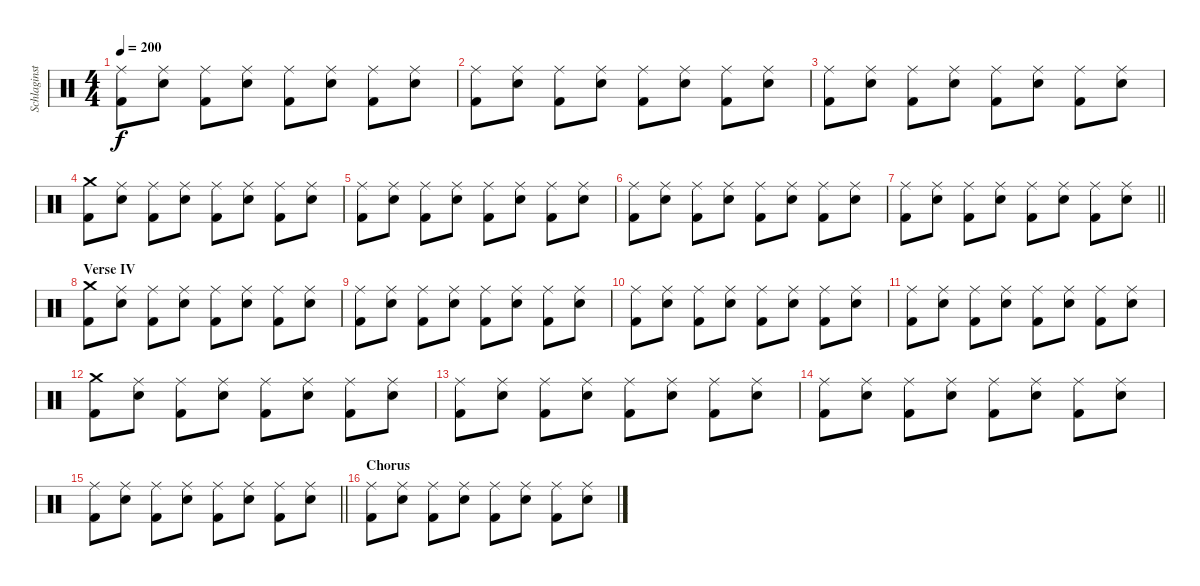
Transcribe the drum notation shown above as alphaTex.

\track ("Schlaginstrumente - Auswahl" "Schlaginst") {instrument percussion}
\staff {score}
\articulation defaults
\ts (4 4)
\tempo 200
\clef neutral
\ks c
("Ride (middle)" "Kick (hit) 2").8{dy f} ("Ride (middle)" "Electric Snare (hit)").8 ("Ride (middle)" "Kick (hit) 2").8 ("Ride (middle)" "Electric Snare (hit)").8 ("Ride (middle)" "Kick (hit) 2").8 ("Ride (middle)" "Electric Snare (hit)").8 ("Ride (middle)" "Kick (hit) 2").8 ("Ride (middle)" "Electric Snare (hit)").8 |
("Ride (middle)" "Kick (hit) 2").8 ("Ride (middle)" "Electric Snare (hit)").8 ("Ride (middle)" "Kick (hit) 2").8 ("Ride (middle)" "Electric Snare (hit)").8 ("Ride (middle)" "Kick (hit) 2").8 ("Ride (middle)" "Electric Snare (hit)").8 ("Ride (middle)" "Kick (hit) 2").8 ("Ride (middle)" "Electric Snare (hit)").8 |
("Ride (middle)" "Kick (hit) 2").8 ("Ride (middle)" "Electric Snare (hit)").8 ("Ride (middle)" "Kick (hit) 2").8 ("Ride (middle)" "Electric Snare (hit)").8 ("Ride (middle)" "Kick (hit) 2").8 ("Ride (middle)" "Electric Snare (hit)").8 ("Ride (middle)" "Kick (hit) 2").8 ("Ride (middle)" "Electric Snare (hit)").8 |
("Crash medium (hit)" "Kick (hit) 2").8 ("Ride (middle)" "Electric Snare (hit)").8 ("Ride (middle)" "Kick (hit) 2").8 ("Ride (middle)" "Electric Snare (hit)").8 ("Ride (middle)" "Kick (hit) 2").8 ("Ride (middle)" "Electric Snare (hit)").8 ("Ride (middle)" "Kick (hit) 2").8 ("Ride (middle)" "Electric Snare (hit)").8 |
("Ride (middle)" "Kick (hit) 2").8 ("Ride (middle)" "Electric Snare (hit)").8 ("Ride (middle)" "Kick (hit) 2").8 ("Ride (middle)" "Electric Snare (hit)").8 ("Ride (middle)" "Kick (hit) 2").8 ("Ride (middle)" "Electric Snare (hit)").8 ("Ride (middle)" "Kick (hit) 2").8 ("Ride (middle)" "Electric Snare (hit)").8 |
("Ride (middle)" "Kick (hit) 2").8 ("Ride (middle)" "Electric Snare (hit)").8 ("Ride (middle)" "Kick (hit) 2").8 ("Ride (middle)" "Electric Snare (hit)").8 ("Ride (middle)" "Kick (hit) 2").8 ("Ride (middle)" "Electric Snare (hit)").8 ("Ride (middle)" "Kick (hit) 2").8 ("Ride (middle)" "Electric Snare (hit)").8 |
\barLineRight lightlight
("Ride (middle)" "Kick (hit) 2").8 ("Ride (middle)" "Electric Snare (hit)").8 ("Ride (middle)" "Kick (hit) 2").8 ("Ride (middle)" "Electric Snare (hit)").8 ("Ride (middle)" "Kick (hit) 2").8 ("Ride (middle)" "Electric Snare (hit)").8 ("Ride (middle)" "Kick (hit) 2").8 ("Ride (middle)" "Electric Snare (hit)").8 |
\section ("" "Verse IV")
("Crash medium (hit)" "Kick (hit) 2").8 ("Ride (middle)" "Electric Snare (hit)").8 ("Ride (middle)" "Kick (hit) 2").8 ("Ride (middle)" "Electric Snare (hit)").8 ("Ride (middle)" "Kick (hit) 2").8 ("Ride (middle)" "Electric Snare (hit)").8 ("Ride (middle)" "Kick (hit) 2").8 ("Ride (middle)" "Electric Snare (hit)").8 |
("Ride (middle)" "Kick (hit) 2").8 ("Ride (middle)" "Electric Snare (hit)").8 ("Ride (middle)" "Kick (hit) 2").8 ("Ride (middle)" "Electric Snare (hit)").8 ("Ride (middle)" "Kick (hit) 2").8 ("Ride (middle)" "Electric Snare (hit)").8 ("Ride (middle)" "Kick (hit) 2").8 ("Ride (middle)" "Electric Snare (hit)").8 |
("Ride (middle)" "Kick (hit) 2").8 ("Ride (middle)" "Electric Snare (hit)").8 ("Ride (middle)" "Kick (hit) 2").8 ("Ride (middle)" "Electric Snare (hit)").8 ("Ride (middle)" "Kick (hit) 2").8 ("Ride (middle)" "Electric Snare (hit)").8 ("Ride (middle)" "Kick (hit) 2").8 ("Ride (middle)" "Electric Snare (hit)").8 |
("Ride (middle)" "Kick (hit) 2").8 ("Ride (middle)" "Electric Snare (hit)").8 ("Ride (middle)" "Kick (hit) 2").8 ("Ride (middle)" "Electric Snare (hit)").8 ("Ride (middle)" "Kick (hit) 2").8 ("Ride (middle)" "Electric Snare (hit)").8 ("Ride (middle)" "Kick (hit) 2").8 ("Ride (middle)" "Electric Snare (hit)").8 |
("Crash medium (hit)" "Kick (hit) 2").8 ("Ride (middle)" "Electric Snare (hit)").8 ("Ride (middle)" "Kick (hit) 2").8 ("Ride (middle)" "Electric Snare (hit)").8 ("Ride (middle)" "Kick (hit) 2").8 ("Ride (middle)" "Electric Snare (hit)").8 ("Ride (middle)" "Kick (hit) 2").8 ("Ride (middle)" "Electric Snare (hit)").8 |
("Ride (middle)" "Kick (hit) 2").8 ("Ride (middle)" "Electric Snare (hit)").8 ("Ride (middle)" "Kick (hit) 2").8 ("Ride (middle)" "Electric Snare (hit)").8 ("Ride (middle)" "Kick (hit) 2").8 ("Ride (middle)" "Electric Snare (hit)").8 ("Ride (middle)" "Kick (hit) 2").8 ("Ride (middle)" "Electric Snare (hit)").8 |
("Ride (middle)" "Kick (hit) 2").8 ("Ride (middle)" "Electric Snare (hit)").8 ("Ride (middle)" "Kick (hit) 2").8 ("Ride (middle)" "Electric Snare (hit)").8 ("Ride (middle)" "Kick (hit) 2").8 ("Ride (middle)" "Electric Snare (hit)").8 ("Ride (middle)" "Kick (hit) 2").8 ("Ride (middle)" "Electric Snare (hit)").8 |
\barLineRight lightlight
("Ride (middle)" "Kick (hit) 2").8 ("Ride (middle)" "Electric Snare (hit)").8 ("Ride (middle)" "Kick (hit) 2").8 ("Ride (middle)" "Electric Snare (hit)").8 ("Ride (middle)" "Kick (hit) 2").8 ("Ride (middle)" "Electric Snare (hit)").8 ("Ride (middle)" "Kick (hit) 2").8 ("Ride (middle)" "Electric Snare (hit)").8 |
\section ("" "Chorus")
("Ride (middle)" "Kick (hit) 2").8 ("Ride (middle)" "Electric Snare (hit)").8 ("Ride (middle)" "Kick (hit) 2").8 ("Ride (middle)" "Electric Snare (hit)").8 ("Ride (middle)" "Kick (hit) 2").8 ("Ride (middle)" "Electric Snare (hit)").8 ("Ride (middle)" "Kick (hit) 2").8 ("Ride (middle)" "Electric Snare (hit)").8
